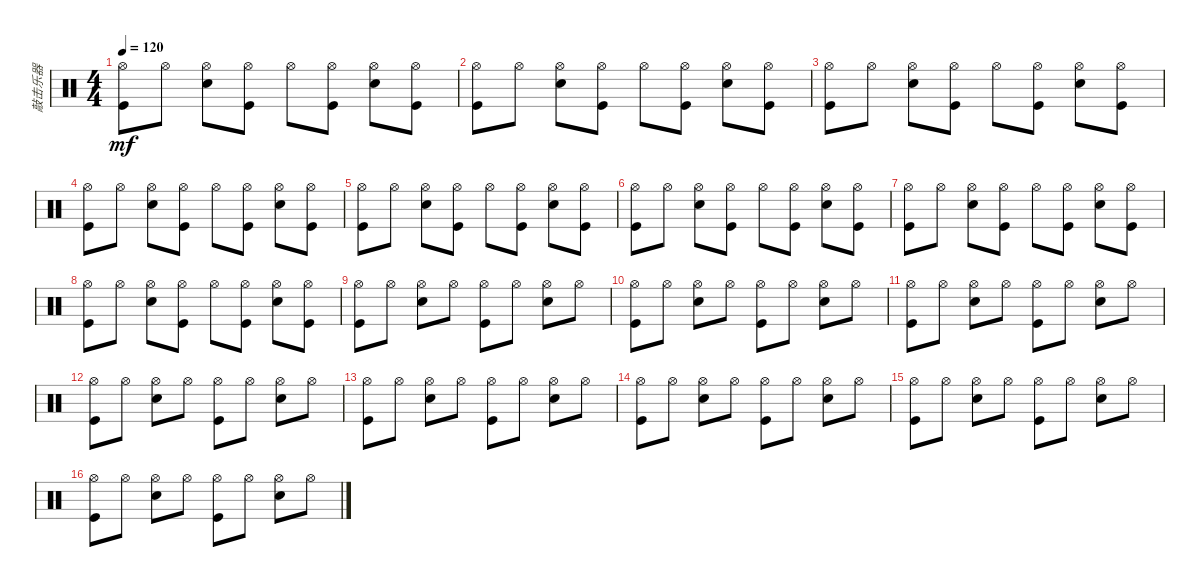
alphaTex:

\track ("敲击乐器" "敲击乐器") {instrument percussion}
\staff {score}
\articulation defaults
\ts (4 4)
\tempo 120
\clef neutral
\ks c
("Kick (hit)" "Hi-Hat (open)").8{dy mf} "Hi-Hat (open)".8 ("Snare (hit) 2" "Hi-Hat (open)").8 ("Hi-Hat (open)" "Kick (hit)").8 "Hi-Hat (open)".8 ("Hi-Hat (open)" "Kick (hit)").8 ("Snare (hit) 2" "Hi-Hat (open)").8 ("Hi-Hat (open)" "Kick (hit)").8 |
("Kick (hit)" "Hi-Hat (open)").8 "Hi-Hat (open)".8 ("Snare (hit) 2" "Hi-Hat (open)").8 ("Hi-Hat (open)" "Kick (hit)").8 "Hi-Hat (open)".8 ("Hi-Hat (open)" "Kick (hit)").8 ("Snare (hit) 2" "Hi-Hat (open)").8 ("Hi-Hat (open)" "Kick (hit)").8 |
("Kick (hit)" "Hi-Hat (open)").8 "Hi-Hat (open)".8 ("Snare (hit) 2" "Hi-Hat (open)").8 ("Hi-Hat (open)" "Kick (hit)").8 "Hi-Hat (open)".8 ("Hi-Hat (open)" "Kick (hit)").8 ("Snare (hit) 2" "Hi-Hat (open)").8 ("Hi-Hat (open)" "Kick (hit)").8 |
("Kick (hit)" "Hi-Hat (open)").8 "Hi-Hat (open)".8 ("Snare (hit) 2" "Hi-Hat (open)").8 ("Hi-Hat (open)" "Kick (hit)").8 "Hi-Hat (open)".8 ("Hi-Hat (open)" "Kick (hit)").8 ("Snare (hit) 2" "Hi-Hat (open)").8 ("Hi-Hat (open)" "Kick (hit)").8 |
("Kick (hit)" "Hi-Hat (open)").8 "Hi-Hat (open)".8 ("Snare (hit) 2" "Hi-Hat (open)").8 ("Hi-Hat (open)" "Kick (hit)").8 "Hi-Hat (open)".8 ("Hi-Hat (open)" "Kick (hit)").8 ("Snare (hit) 2" "Hi-Hat (open)").8 ("Hi-Hat (open)" "Kick (hit)").8 |
("Kick (hit)" "Hi-Hat (open)").8 "Hi-Hat (open)".8 ("Snare (hit) 2" "Hi-Hat (open)").8 ("Hi-Hat (open)" "Kick (hit)").8 "Hi-Hat (open)".8 ("Hi-Hat (open)" "Kick (hit)").8 ("Snare (hit) 2" "Hi-Hat (open)").8 ("Hi-Hat (open)" "Kick (hit)").8 |
("Kick (hit)" "Hi-Hat (open)").8 "Hi-Hat (open)".8 ("Snare (hit) 2" "Hi-Hat (open)").8 ("Hi-Hat (open)" "Kick (hit)").8 "Hi-Hat (open)".8 ("Hi-Hat (open)" "Kick (hit)").8 ("Snare (hit) 2" "Hi-Hat (open)").8 ("Hi-Hat (open)" "Kick (hit)").8 |
("Kick (hit)" "Hi-Hat (open)").8 "Hi-Hat (open)".8 ("Snare (hit) 2" "Hi-Hat (open)").8 ("Hi-Hat (open)" "Kick (hit)").8 "Hi-Hat (open)".8 ("Hi-Hat (open)" "Kick (hit)").8 ("Snare (hit) 2" "Hi-Hat (open)").8 ("Hi-Hat (open)" "Kick (hit)").8 |
("Kick (hit)" "Hi-Hat (open)").8 "Hi-Hat (open)".8 ("Snare (hit) 2" "Hi-Hat (open)").8 "Hi-Hat (open)".8 ("Kick (hit)" "Hi-Hat (open)").8 "Hi-Hat (open)".8 ("Snare (hit) 2" "Hi-Hat (open)").8 "Hi-Hat (open)".8 |
("Kick (hit)" "Hi-Hat (open)").8 "Hi-Hat (open)".8 ("Snare (hit) 2" "Hi-Hat (open)").8 "Hi-Hat (open)".8 ("Kick (hit)" "Hi-Hat (open)").8 "Hi-Hat (open)".8 ("Snare (hit) 2" "Hi-Hat (open)").8 "Hi-Hat (open)".8 |
("Kick (hit)" "Hi-Hat (open)").8 "Hi-Hat (open)".8 ("Snare (hit) 2" "Hi-Hat (open)").8 "Hi-Hat (open)".8 ("Kick (hit)" "Hi-Hat (open)").8 "Hi-Hat (open)".8 ("Snare (hit) 2" "Hi-Hat (open)").8 "Hi-Hat (open)".8 |
("Kick (hit)" "Hi-Hat (open)").8 "Hi-Hat (open)".8 ("Snare (hit) 2" "Hi-Hat (open)").8 "Hi-Hat (open)".8 ("Kick (hit)" "Hi-Hat (open)").8 "Hi-Hat (open)".8 ("Snare (hit) 2" "Hi-Hat (open)").8 "Hi-Hat (open)".8 |
("Kick (hit)" "Hi-Hat (open)").8 "Hi-Hat (open)".8 ("Snare (hit) 2" "Hi-Hat (open)").8 "Hi-Hat (open)".8 ("Kick (hit)" "Hi-Hat (open)").8 "Hi-Hat (open)".8 ("Snare (hit) 2" "Hi-Hat (open)").8 "Hi-Hat (open)".8 |
("Kick (hit)" "Hi-Hat (open)").8 "Hi-Hat (open)".8 ("Snare (hit) 2" "Hi-Hat (open)").8 "Hi-Hat (open)".8 ("Kick (hit)" "Hi-Hat (open)").8 "Hi-Hat (open)".8 ("Snare (hit) 2" "Hi-Hat (open)").8 "Hi-Hat (open)".8 |
("Kick (hit)" "Hi-Hat (open)").8 "Hi-Hat (open)".8 ("Snare (hit) 2" "Hi-Hat (open)").8 "Hi-Hat (open)".8 ("Kick (hit)" "Hi-Hat (open)").8 "Hi-Hat (open)".8 ("Snare (hit) 2" "Hi-Hat (open)").8 "Hi-Hat (open)".8 |
("Kick (hit)" "Hi-Hat (open)").8 "Hi-Hat (open)".8 ("Snare (hit) 2" "Hi-Hat (open)").8 "Hi-Hat (open)".8 ("Kick (hit)" "Hi-Hat (open)").8 "Hi-Hat (open)".8 ("Snare (hit) 2" "Hi-Hat (open)").8 "Hi-Hat (open)".8
